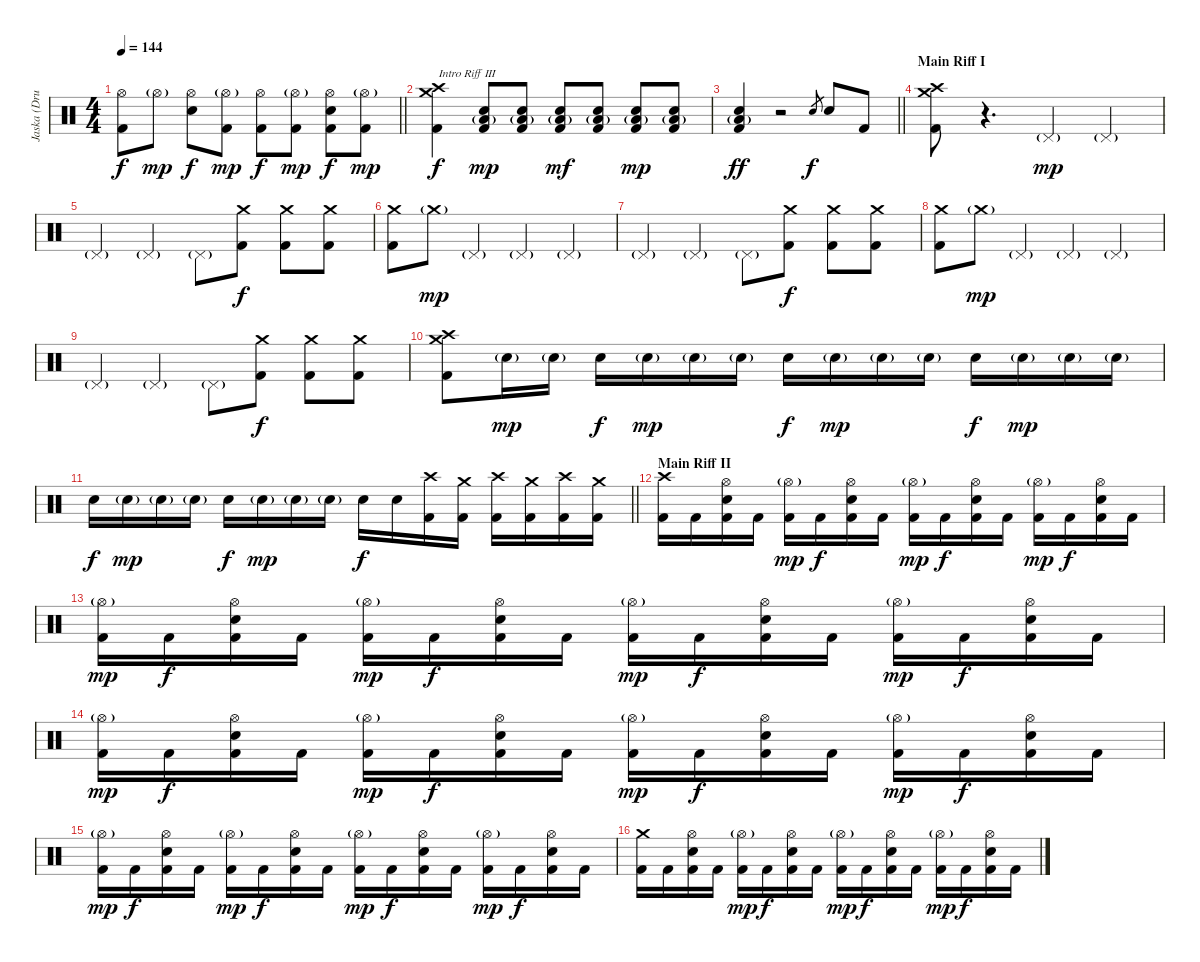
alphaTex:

\track ("Jaska (Drums)" "Jaska (Dru") {instrument percussion}
\staff {score}
\articulation defaults
\ts (4 4)
\tempo 144
\clef neutral
\barLineRight lightlight
\ks c
("Hi-Hat (open)" "Kick (hit) 2").8{dy f} "Hi-Hat (open)"{g}.8{dy mp} ("Hi-Hat (open)" "Electric Snare (hit)").8{dy f} ("Hi-Hat (open)"{g} "Kick (hit) 2").8{dy mp} ("Hi-Hat (open)" "Kick (hit) 2").8{dy f} ("Hi-Hat (open)"{g} "Kick (hit) 2").8{dy mp} ("Hi-Hat (open)" "Electric Snare (hit)" "Kick (hit) 2").8{dy f} ("Hi-Hat (open)"{g} "Kick (hit) 2").8{dy mp} |
("Crash medium (hit)" "Crash high (hit)" "Kick (hit) 2").4{txt "Intro Riff III" dy f volume 12} ("Low Floor Tom (hit)"{g} "Electric Snare (hit)" "Kick (hit) 2").8{dy mp volume 16} ("Low Floor Tom (hit)"{g} "Electric Snare (hit)" "Kick (hit) 2").8 ("Low Floor Tom (hit)"{g} "Electric Snare (hit)" "Kick (hit) 2").8{dy mf} ("Low Floor Tom (hit)"{g} "Electric Snare (hit)" "Kick (hit) 2").8 ("Low Floor Tom (hit)"{g} "Electric Snare (hit)" "Kick (hit) 2").8{dy mp} ("Low Floor Tom (hit)"{g} "Electric Snare (hit)" "Kick (hit) 2").8 |
\barLineRight lightlight
("Low Floor Tom (hit)"{g} "Electric Snare (hit)" "Kick (hit) 2").4{dy ff} r.2 "Electric Snare (hit)".8{gr dy f} "Electric Snare (hit)".8 "Kick (hit) 2".8 |
\section ("" "Main Riff I")
("Crash medium (hit)" "Crash high (hit)" "Kick (hit) 2").8 r.4{d volume 0} "Pedal Hi-Hat (hit)"{g}.4{dy mp volume 6} "Pedal Hi-Hat (hit)"{g}.4 |
"Pedal Hi-Hat (hit)"{g}.4 "Pedal Hi-Hat (hit)"{g}.4 "Pedal Hi-Hat (hit)"{g}.8 ("Crash medium (hit)" "Kick (hit) 2").8{dy f volume 16} ("Crash medium (hit)" "Kick (hit) 2").8 ("Crash medium (hit)" "Kick (hit) 2").8 |
("Crash medium (hit)" "Kick (hit) 2").8 "Crash medium (hit)"{g}.8{dy mp volume 0} "Pedal Hi-Hat (hit)"{g}.4{volume 5} "Pedal Hi-Hat (hit)"{g}.4 "Pedal Hi-Hat (hit)"{g}.4 |
"Pedal Hi-Hat (hit)"{g}.4 "Pedal Hi-Hat (hit)"{g}.4 "Pedal Hi-Hat (hit)"{g}.8 ("Crash medium (hit)" "Kick (hit) 2").8{dy f volume 16} ("Crash medium (hit)" "Kick (hit) 2").8 ("Crash medium (hit)" "Kick (hit) 2").8 |
("Crash medium (hit)" "Kick (hit) 2").8 "Crash medium (hit)"{g}.8{dy mp volume 0} "Pedal Hi-Hat (hit)"{g}.4{volume 5} "Pedal Hi-Hat (hit)"{g}.4 "Pedal Hi-Hat (hit)"{g}.4 |
"Pedal Hi-Hat (hit)"{g}.4 "Pedal Hi-Hat (hit)"{g}.4 "Pedal Hi-Hat (hit)"{g}.8 ("Crash medium (hit)" "Kick (hit) 2").8{dy f volume 16} ("Crash medium (hit)" "Kick (hit) 2").8 ("Crash medium (hit)" "Kick (hit) 2").8 |
("Crash medium (hit)" "Crash high (hit)" "Kick (hit) 2").8{volume 10} "Electric Snare (hit)"{g}.16{dy mp volume 8} "Electric Snare (hit)"{g}.16 "Electric Snare (hit)".16{dy f} "Electric Snare (hit)"{g}.16{dy mp} "Electric Snare (hit)"{g}.16 "Electric Snare (hit)"{g}.16 "Electric Snare (hit)".16{dy f} "Electric Snare (hit)"{g}.16{dy mp} "Electric Snare (hit)"{g}.16 "Electric Snare (hit)"{g}.16 "Electric Snare (hit)".16{dy f} "Electric Snare (hit)"{g}.16{dy mp} "Electric Snare (hit)"{g}.16 "Electric Snare (hit)"{g}.16 |
\barLineRight lightlight "Electric Snare (hit)".16{dy f volume 16} "Electric Snare (hit)"{g}.16{dy mp} "Electric Snare (hit)"{g}.16 "Electric Snare (hit)"{g}.16 "Electric Snare (hit)".16{dy f} "Electric Snare (hit)"{g}.16{dy mp} "Electric Snare (hit)"{g}.16 "Electric Snare (hit)"{g}.16 "Electric Snare (hit)".16{dy f} "Electric Snare (hit)".16
("Crash high (hit)" "Kick (hit) 2").16 ("Crash medium (hit)" "Kick (hit) 2").16 ("Crash high (hit)" "Kick (hit) 2").16 ("Crash medium (hit)" "Kick (hit) 2").16 ("Crash high (hit)" "Kick (hit) 2").16 ("Crash medium (hit)" "Kick (hit) 2").16 |
\section ("" "Main Riff II")
("Crash high (hit)" "Kick (hit) 2").16 "Kick (hit) 2".16 ("Hi-Hat (open)" "Electric Snare (hit)" "Kick (hit) 2").16 "Kick (hit) 2".16 ("Hi-Hat (open)"{g} "Kick (hit) 2").16{dy mp} "Kick (hit) 2".16{dy f} ("Hi-Hat (open)" "Electric Snare (hit)" "Kick (hit) 2").16 "Kick (hit) 2".16 ("Hi-Hat (open)"{g} "Kick (hit) 2").16{dy mp} "Kick (hit) 2".16{dy f} ("Hi-Hat (open)" "Electric Snare (hit)" "Kick (hit) 2").16 "Kick (hit) 2".16 ("Hi-Hat (open)"{g} "Kick (hit) 2").16{dy mp} "Kick (hit) 2".16{dy f} ("Hi-Hat (open)" "Electric Snare (hit)" "Kick (hit) 2").16 "Kick (hit) 2".16 |
("Hi-Hat (open)"{g} "Kick (hit) 2").16{dy mp} "Kick (hit) 2".16{dy f} ("Hi-Hat (open)" "Electric Snare (hit)" "Kick (hit) 2").16 "Kick (hit) 2".16 ("Hi-Hat (open)"{g} "Kick (hit) 2").16{dy mp} "Kick (hit) 2".16{dy f} ("Hi-Hat (open)" "Electric Snare (hit)" "Kick (hit) 2").16 "Kick (hit) 2".16 ("Hi-Hat (open)"{g} "Kick (hit) 2").16{dy mp} "Kick (hit) 2".16{dy f} ("Hi-Hat (open)" "Electric Snare (hit)" "Kick (hit) 2").16 "Kick (hit) 2".16 ("Hi-Hat (open)"{g} "Kick (hit) 2").16{dy mp} "Kick (hit) 2".16{dy f} ("Hi-Hat (open)" "Electric Snare (hit)" "Kick (hit) 2").16 "Kick (hit) 2".16 |
("Hi-Hat (open)"{g} "Kick (hit) 2").16{dy mp} "Kick (hit) 2".16{dy f} ("Hi-Hat (open)" "Electric Snare (hit)" "Kick (hit) 2").16 "Kick (hit) 2".16 ("Hi-Hat (open)"{g} "Kick (hit) 2").16{dy mp} "Kick (hit) 2".16{dy f} ("Hi-Hat (open)" "Electric Snare (hit)" "Kick (hit) 2").16 "Kick (hit) 2".16 ("Hi-Hat (open)"{g} "Kick (hit) 2").16{dy mp} "Kick (hit) 2".16{dy f} ("Hi-Hat (open)" "Electric Snare (hit)" "Kick (hit) 2").16 "Kick (hit) 2".16 ("Hi-Hat (open)"{g} "Kick (hit) 2").16{dy mp} "Kick (hit) 2".16{dy f} ("Hi-Hat (open)" "Electric Snare (hit)" "Kick (hit) 2").16 "Kick (hit) 2".16 |
("Hi-Hat (open)"{g} "Kick (hit) 2").16{dy mp} "Kick (hit) 2".16{dy f} ("Hi-Hat (open)" "Electric Snare (hit)" "Kick (hit) 2").16 "Kick (hit) 2".16 ("Hi-Hat (open)"{g} "Kick (hit) 2").16{dy mp} "Kick (hit) 2".16{dy f} ("Hi-Hat (open)" "Electric Snare (hit)" "Kick (hit) 2").16 "Kick (hit) 2".16 ("Hi-Hat (open)"{g} "Kick (hit) 2").16{dy mp} "Kick (hit) 2".16{dy f} ("Hi-Hat (open)" "Electric Snare (hit)" "Kick (hit) 2").16 "Kick (hit) 2".16 ("Hi-Hat (open)"{g} "Kick (hit) 2").16{dy mp} "Kick (hit) 2".16{dy f} ("Hi-Hat (open)" "Electric Snare (hit)" "Kick (hit) 2").16 "Kick (hit) 2".16 |
("Crash medium (hit)" "Kick (hit) 2").16 "Kick (hit) 2".16 ("Hi-Hat (open)" "Electric Snare (hit)" "Kick (hit) 2").16 "Kick (hit) 2".16 ("Hi-Hat (open)"{g} "Kick (hit) 2").16{dy mp} "Kick (hit) 2".16{dy f} ("Hi-Hat (open)" "Electric Snare (hit)" "Kick (hit) 2").16 "Kick (hit) 2".16 ("Hi-Hat (open)"{g} "Kick (hit) 2").16{dy mp} "Kick (hit) 2".16{dy f} ("Hi-Hat (open)" "Electric Snare (hit)" "Kick (hit) 2").16 "Kick (hit) 2".16 ("Hi-Hat (open)"{g} "Kick (hit) 2").16{dy mp} "Kick (hit) 2".16{dy f} ("Hi-Hat (open)" "Electric Snare (hit)" "Kick (hit) 2").16 "Kick (hit) 2".16
